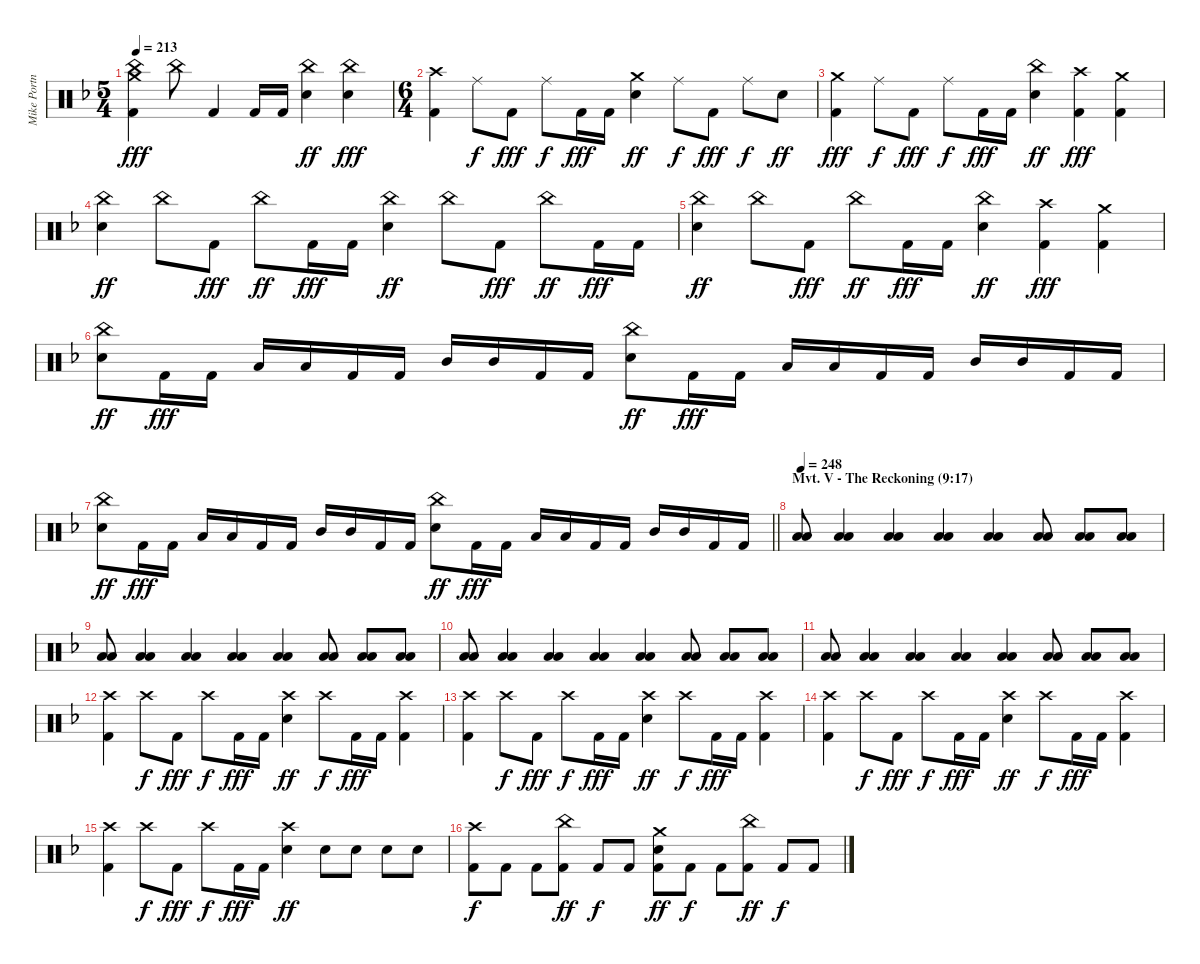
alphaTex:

\track ("Mike Portnoy Drums" "Mike Portn") {instrument percussion}
\staff {score}
\articulation defaults
\ts (5 4)
\tempo 213
\clef neutral
\ks dminor
("Crash medium (hit)" "China (hit)" "Kick (hit) 2").4{dy fff} "China (hit)".8 "Kick (hit) 2".4 "Kick (hit) 2".16 "Kick (hit) 2".16 ("China (hit)" "Electric Snare (hit)").4{dy ff} ("China (hit)" "Electric Snare (hit)").4{dy fff} |
\ts (6 4)
("Crash high (hit)" "Kick (hit) 2").4 "Ride (middle)".8{dy f} "Kick (hit) 2".8{dy fff} "Ride (middle)".8{dy f} "Kick (hit) 2".16{dy fff} "Kick (hit) 2".16 ("Crash medium (hit)" "Electric Snare (hit)").4{dy ff} "Ride (middle)".8{dy f} "Kick (hit) 2".8{dy fff} "Ride (middle)".8{dy f} "Electric Snare (hit)".8{dy ff} |
("Crash medium (hit)" "Kick (hit) 2").4{dy fff} "Ride (middle)".8{dy f} "Kick (hit) 2".8{dy fff} "Ride (middle)".8{dy f} "Kick (hit) 2".16{dy fff} "Kick (hit) 2".16 ("China (hit)" "Electric Snare (hit)").4{dy ff} ("Crash high (hit)" "Kick (hit) 2").4{dy fff} ("Crash medium (hit)" "Kick (hit) 2").4 |
("China (hit)" "Electric Snare (hit)").4{dy ff} "China (hit)".8 "Kick (hit) 2".8{dy fff} "China (hit)".8{dy ff} "Kick (hit) 2".16{dy fff} "Kick (hit) 2".16 ("China (hit)" "Electric Snare (hit)").4{dy ff} "China (hit)".8 "Kick (hit) 2".8{dy fff} "China (hit)".8{dy ff} "Kick (hit) 2".16{dy fff} "Kick (hit) 2".16 |
("China (hit)" "Electric Snare (hit)").4{dy ff} "China (hit)".8 "Kick (hit) 2".8{dy fff} "China (hit)".8{dy ff} "Kick (hit) 2".16{dy fff} "Kick (hit) 2".16 ("China (hit)" "Electric Snare (hit)").4{dy ff} ("Crash high (hit)" "Kick (hit) 2").4{dy fff} ("Crash medium (hit)" "Kick (hit) 2").4 |
("China (hit)" "Electric Snare (hit)").8{dy ff} "Kick (hit) 2".16{dy fff} "Kick (hit) 2".16 "Low Tom (hit)".16 "Low Tom (hit)".16 "Kick (hit) 2".16 "Kick (hit) 2".16 "Mid Tom (hit)".16 "Mid Tom (hit)".16 "Kick (hit) 2".16 "Kick (hit) 2".16 ("China (hit)" "Electric Snare (hit)").8{dy ff} "Kick (hit) 2".16{dy fff} "Kick (hit) 2".16 "Low Tom (hit)".16 "Low Tom (hit)".16 "Kick (hit) 2".16 "Kick (hit) 2".16 "Mid Tom (hit)".16 "Mid Tom (hit)".16 "Kick (hit) 2".16 "Kick (hit) 2".16 |
\barLineRight lightlight
("China (hit)" "Electric Snare (hit)").8{dy ff} "Kick (hit) 2".16{dy fff} "Kick (hit) 2".16 "Low Tom (hit)".16 "Low Tom (hit)".16 "Kick (hit) 2".16 "Kick (hit) 2".16 "Mid Tom (hit)".16 "Mid Tom (hit)".16 "Kick (hit) 2".16 "Kick (hit) 2".16 ("China (hit)" "Electric Snare (hit)").8{dy ff} "Kick (hit) 2".16{dy fff} "Kick (hit) 2".16 "Low Tom (hit)".16 "Low Tom (hit)".16 "Kick (hit) 2".16 "Kick (hit) 2".16 "Mid Tom (hit)".16 "Mid Tom (hit)".16 "Kick (hit) 2".16 "Kick (hit) 2".16 |
\section ("" "Mvt. V - The Reckoning (9:17)")
\tempo 248
("Low Floor Tom (hit)" "Low Floor Tom (hit)").8 ("Low Floor Tom (hit)" "Low Floor Tom (hit)").4 ("Low Floor Tom (hit)" "Low Floor Tom (hit)").4 ("Low Floor Tom (hit)" "Low Floor Tom (hit)").4 ("Low Floor Tom (hit)" "Low Floor Tom (hit)").4 ("Low Floor Tom (hit)" "Low Floor Tom (hit)").8 ("Low Floor Tom (hit)" "Low Floor Tom (hit)").8 ("Low Floor Tom (hit)" "Low Floor Tom (hit)").8 |
("Low Floor Tom (hit)" "Low Floor Tom (hit)").8 ("Low Floor Tom (hit)" "Low Floor Tom (hit)").4 ("Low Floor Tom (hit)" "Low Floor Tom (hit)").4 ("Low Floor Tom (hit)" "Low Floor Tom (hit)").4 ("Low Floor Tom (hit)" "Low Floor Tom (hit)").4 ("Low Floor Tom (hit)" "Low Floor Tom (hit)").8 ("Low Floor Tom (hit)" "Low Floor Tom (hit)").8 ("Low Floor Tom (hit)" "Low Floor Tom (hit)").8 |
("Low Floor Tom (hit)" "Low Floor Tom (hit)").8 ("Low Floor Tom (hit)" "Low Floor Tom (hit)").4 ("Low Floor Tom (hit)" "Low Floor Tom (hit)").4 ("Low Floor Tom (hit)" "Low Floor Tom (hit)").4 ("Low Floor Tom (hit)" "Low Floor Tom (hit)").4 ("Low Floor Tom (hit)" "Low Floor Tom (hit)").8 ("Low Floor Tom (hit)" "Low Floor Tom (hit)").8 ("Low Floor Tom (hit)" "Low Floor Tom (hit)").8 |
("Low Floor Tom (hit)" "Low Floor Tom (hit)").8 ("Low Floor Tom (hit)" "Low Floor Tom (hit)").4 ("Low Floor Tom (hit)" "Low Floor Tom (hit)").4 ("Low Floor Tom (hit)" "Low Floor Tom (hit)").4 ("Low Floor Tom (hit)" "Low Floor Tom (hit)").4 ("Low Floor Tom (hit)" "Low Floor Tom (hit)").8 ("Low Floor Tom (hit)" "Low Floor Tom (hit)").8 ("Low Floor Tom (hit)" "Low Floor Tom (hit)").8 |
("Crash high (hit)" "Kick (hit) 2").4 "Crash high (hit)".8{dy f} "Kick (hit) 2".8{dy fff} "Crash high (hit)".8{dy f} "Kick (hit) 2".16{dy fff} "Kick (hit) 2".16 ("Crash high (hit)" "Electric Snare (hit)").4{dy ff} "Crash high (hit)".8{dy f} "Kick (hit) 2".16{dy fff} "Kick (hit) 2".16 ("Crash high (hit)" "Kick (hit) 2").4 |
("Crash high (hit)" "Kick (hit) 2").4 "Crash high (hit)".8{dy f} "Kick (hit) 2".8{dy fff} "Crash high (hit)".8{dy f} "Kick (hit) 2".16{dy fff} "Kick (hit) 2".16 ("Crash high (hit)" "Electric Snare (hit)").4{dy ff} "Crash high (hit)".8{dy f} "Kick (hit) 2".16{dy fff} "Kick (hit) 2".16 ("Crash high (hit)" "Kick (hit) 2").4 |
("Crash high (hit)" "Kick (hit) 2").4 "Crash high (hit)".8{dy f} "Kick (hit) 2".8{dy fff} "Crash high (hit)".8{dy f} "Kick (hit) 2".16{dy fff} "Kick (hit) 2".16 ("Crash high (hit)" "Electric Snare (hit)").4{dy ff} "Crash high (hit)".8{dy f} "Kick (hit) 2".16{dy fff} "Kick (hit) 2".16 ("Crash high (hit)" "Kick (hit) 2").4 |
("Crash high (hit)" "Kick (hit) 2").4 "Crash high (hit)".8{dy f} "Kick (hit) 2".8{dy fff} "Crash high (hit)".8{dy f} "Kick (hit) 2".16{dy fff} "Kick (hit) 2".16 ("Crash high (hit)" "Electric Snare (hit)").4{dy ff} "Electric Snare (hit)".8 "Electric Snare (hit)".8 "Electric Snare (hit)".8 "Electric Snare (hit)".8 |
("Crash high (hit)" "Kick (hit) 2").8{dy f} "Kick (hit) 2".8 "Kick (hit) 2".8 ("China (hit)" "Kick (hit) 2").8{dy ff} "Kick (hit) 2".8{dy f} "Kick (hit) 2".8 ("Crash medium (hit)" "Electric Snare (hit)" "Kick (hit) 2").8{dy ff} "Kick (hit) 2".8{dy f} "Kick (hit) 2".8 ("China (hit)" "Kick (hit) 2").8{dy ff} "Kick (hit) 2".8{dy f} "Kick (hit) 2".8
